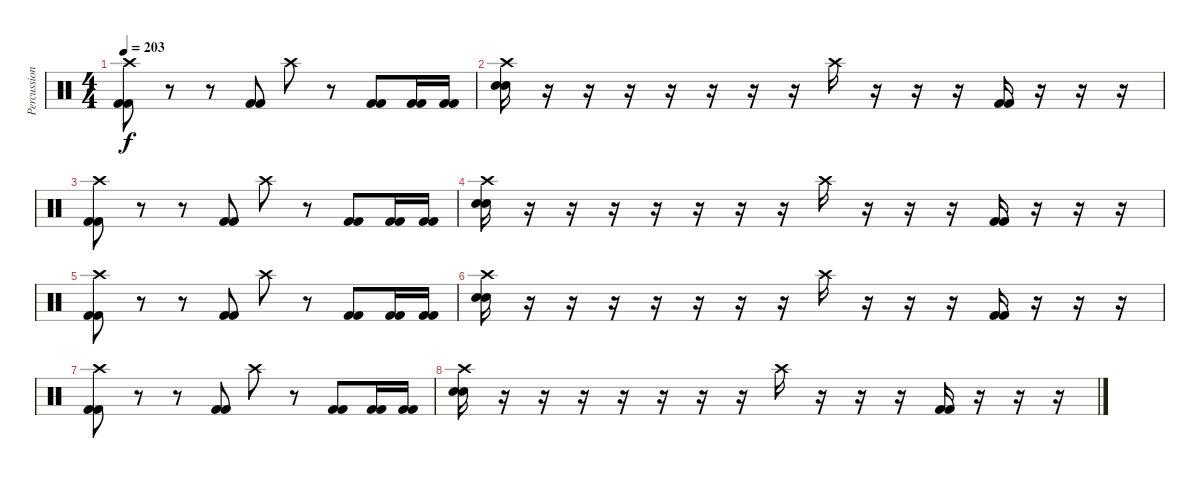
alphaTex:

\track ("Percussion" "Percussion") {instrument percussion}
\staff {score}
\articulation defaults
\ts (4 4)
\tempo 203
\clef neutral
\ks c
("Crash high (hit)" "Kick (hit) 2" "Kick (hit) 2").8{dy f} r.8 r.8 ("Kick (hit) 2" "Kick (hit) 2").8 "Crash high (hit)".8 r.8 ("Kick (hit) 2" "Kick (hit) 2").8 ("Kick (hit) 2" "Kick (hit) 2").16 ("Kick (hit) 2" "Kick (hit) 2").16 |
("Crash high (hit)" "Snare (hit) 2" "Snare (hit) 2").16 r.16 r.16 r.16 r.16 r.16 r.16 r.16 "Crash high (hit)".16 r.16 r.16 r.16 ("Kick (hit) 2" "Kick (hit) 2").16 r.16 r.16 r.16 |
("Crash high (hit)" "Kick (hit) 2" "Kick (hit) 2").8 r.8 r.8 ("Kick (hit) 2" "Kick (hit) 2").8 "Crash high (hit)".8 r.8 ("Kick (hit) 2" "Kick (hit) 2").8 ("Kick (hit) 2" "Kick (hit) 2").16 ("Kick (hit) 2" "Kick (hit) 2").16 |
("Crash high (hit)" "Snare (hit) 2" "Snare (hit) 2").16 r.16 r.16 r.16 r.16 r.16 r.16 r.16 "Crash high (hit)".16 r.16 r.16 r.16 ("Kick (hit) 2" "Kick (hit) 2").16 r.16 r.16 r.16 |
("Crash high (hit)" "Kick (hit) 2" "Kick (hit) 2").8 r.8 r.8 ("Kick (hit) 2" "Kick (hit) 2").8 "Crash high (hit)".8 r.8 ("Kick (hit) 2" "Kick (hit) 2").8 ("Kick (hit) 2" "Kick (hit) 2").16 ("Kick (hit) 2" "Kick (hit) 2").16 |
("Crash high (hit)" "Snare (hit) 2" "Snare (hit) 2").16 r.16 r.16 r.16 r.16 r.16 r.16 r.16 "Crash high (hit)".16 r.16 r.16 r.16 ("Kick (hit) 2" "Kick (hit) 2").16 r.16 r.16 r.16 |
("Crash high (hit)" "Kick (hit) 2" "Kick (hit) 2").8 r.8 r.8 ("Kick (hit) 2" "Kick (hit) 2").8 "Crash high (hit)".8 r.8 ("Kick (hit) 2" "Kick (hit) 2").8 ("Kick (hit) 2" "Kick (hit) 2").16 ("Kick (hit) 2" "Kick (hit) 2").16 |
("Crash high (hit)" "Snare (hit) 2" "Snare (hit) 2").16 r.16 r.16 r.16 r.16 r.16 r.16 r.16 "Crash high (hit)".16 r.16 r.16 r.16 ("Kick (hit) 2" "Kick (hit) 2").16 r.16 r.16 r.16
